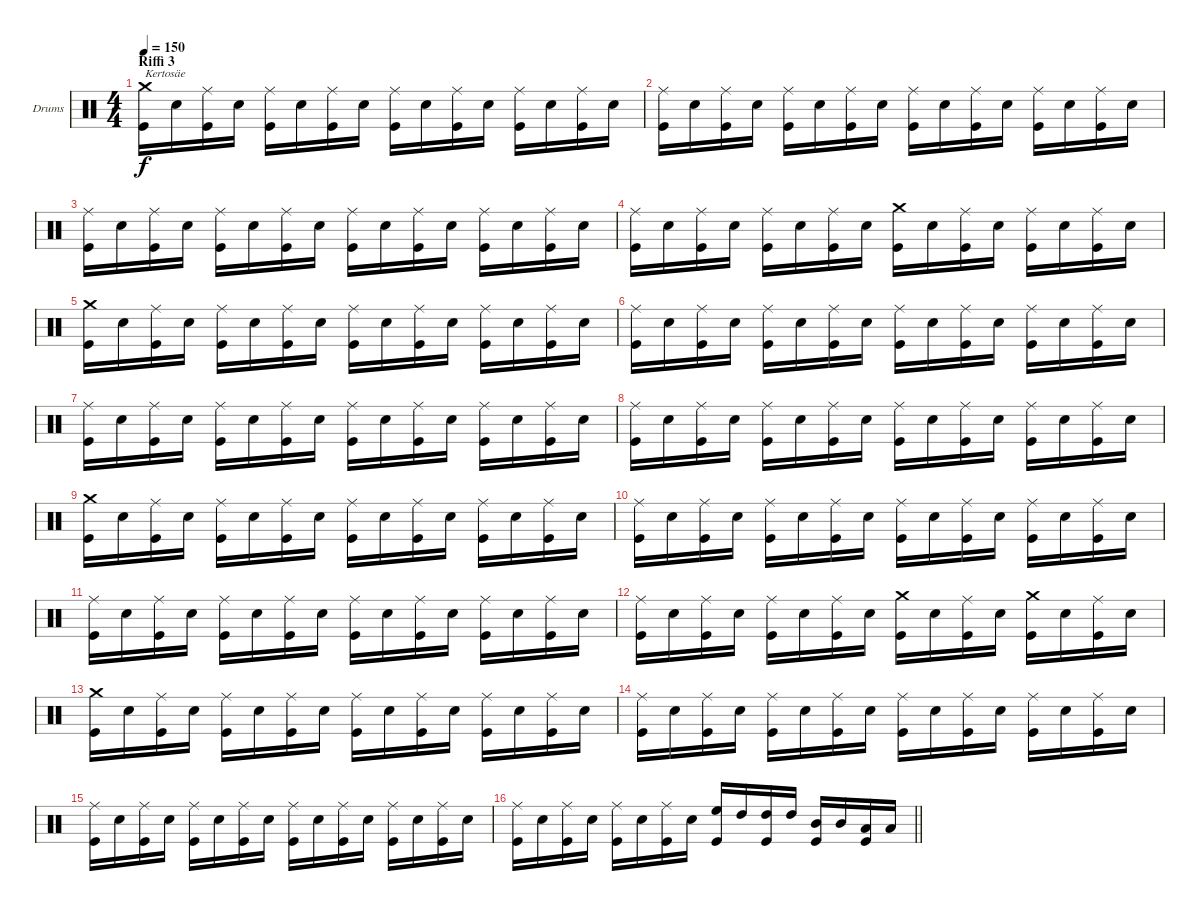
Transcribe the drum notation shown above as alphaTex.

\bracketExtendMode groupsimilarinstruments
\firstSystemTrackNameOrientation horizontal
\otherSystemsTrackNameOrientation horizontal
\track ("Drumkit" "Drums") {instrument percussion}
\staff {score}
\articulation defaults
\ts (4 4)
\section ("" "Riffi 3")
\tempo 150
\clef neutral
\ks c
("Crash medium (hit)" "Kick (hit)").16{txt "Kertosäe" dy f} "Snare (hit) 2".16 ("Ride (middle)" "Kick (hit)").16 "Snare (hit) 2".16 ("Ride (middle)" "Kick (hit)").16 "Snare (hit) 2".16 ("Ride (middle)" "Kick (hit)").16 "Snare (hit) 2".16 ("Ride (middle)" "Kick (hit)").16 "Snare (hit) 2".16 ("Ride (middle)" "Kick (hit)").16 "Snare (hit) 2".16 ("Ride (middle)" "Kick (hit)").16 "Snare (hit) 2".16 ("Ride (middle)" "Kick (hit)").16 "Snare (hit) 2".16 |
("Ride (middle)" "Kick (hit)").16 "Snare (hit) 2".16 ("Ride (middle)" "Kick (hit)").16 "Snare (hit) 2".16 ("Ride (middle)" "Kick (hit)").16 "Snare (hit) 2".16 ("Ride (middle)" "Kick (hit)").16 "Snare (hit) 2".16 ("Ride (middle)" "Kick (hit)").16 "Snare (hit) 2".16 ("Ride (middle)" "Kick (hit)").16 "Snare (hit) 2".16 ("Ride (middle)" "Kick (hit)").16 "Snare (hit) 2".16 ("Ride (middle)" "Kick (hit)").16 "Snare (hit) 2".16 |
("Ride (middle)" "Kick (hit)").16 "Snare (hit) 2".16 ("Ride (middle)" "Kick (hit)").16 "Snare (hit) 2".16 ("Ride (middle)" "Kick (hit)").16 "Snare (hit) 2".16 ("Ride (middle)" "Kick (hit)").16 "Snare (hit) 2".16 ("Ride (middle)" "Kick (hit)").16 "Snare (hit) 2".16 ("Ride (middle)" "Kick (hit)").16 "Snare (hit) 2".16 ("Ride (middle)" "Kick (hit)").16 "Snare (hit) 2".16 ("Ride (middle)" "Kick (hit)").16 "Snare (hit) 2".16 |
("Ride (middle)" "Kick (hit)").16 "Snare (hit) 2".16 ("Ride (middle)" "Kick (hit)").16 "Snare (hit) 2".16 ("Ride (middle)" "Kick (hit)").16 "Snare (hit) 2".16 ("Ride (middle)" "Kick (hit)").16 "Snare (hit) 2".16 ("Crash medium (hit)" "Kick (hit)").16 "Snare (hit) 2".16 ("Ride (middle)" "Kick (hit)").16 "Snare (hit) 2".16 ("Ride (middle)" "Kick (hit)").16 "Snare (hit) 2".16 ("Ride (middle)" "Kick (hit)").16 "Snare (hit) 2".16 |
("Crash medium (hit)" "Kick (hit)").16 "Snare (hit) 2".16 ("Ride (middle)" "Kick (hit)").16 "Snare (hit) 2".16 ("Ride (middle)" "Kick (hit)").16 "Snare (hit) 2".16 ("Ride (middle)" "Kick (hit)").16 "Snare (hit) 2".16 ("Ride (middle)" "Kick (hit)").16 "Snare (hit) 2".16 ("Ride (middle)" "Kick (hit)").16 "Snare (hit) 2".16 ("Ride (middle)" "Kick (hit)").16 "Snare (hit) 2".16 ("Ride (middle)" "Kick (hit)").16 "Snare (hit) 2".16 |
("Ride (middle)" "Kick (hit)").16 "Snare (hit) 2".16 ("Ride (middle)" "Kick (hit)").16 "Snare (hit) 2".16 ("Ride (middle)" "Kick (hit)").16 "Snare (hit) 2".16 ("Ride (middle)" "Kick (hit)").16 "Snare (hit) 2".16 ("Ride (middle)" "Kick (hit)").16 "Snare (hit) 2".16 ("Ride (middle)" "Kick (hit)").16 "Snare (hit) 2".16 ("Ride (middle)" "Kick (hit)").16 "Snare (hit) 2".16 ("Ride (middle)" "Kick (hit)").16 "Snare (hit) 2".16 |
("Ride (middle)" "Kick (hit)").16 "Snare (hit) 2".16 ("Ride (middle)" "Kick (hit)").16 "Snare (hit) 2".16 ("Ride (middle)" "Kick (hit)").16 "Snare (hit) 2".16 ("Ride (middle)" "Kick (hit)").16 "Snare (hit) 2".16 ("Ride (middle)" "Kick (hit)").16 "Snare (hit) 2".16 ("Ride (middle)" "Kick (hit)").16 "Snare (hit) 2".16 ("Ride (middle)" "Kick (hit)").16 "Snare (hit) 2".16 ("Ride (middle)" "Kick (hit)").16 "Snare (hit) 2".16 |
("Ride (middle)" "Kick (hit)").16 "Snare (hit) 2".16 ("Ride (middle)" "Kick (hit)").16 "Snare (hit) 2".16 ("Ride (middle)" "Kick (hit)").16 "Snare (hit) 2".16 ("Ride (middle)" "Kick (hit)").16 "Snare (hit) 2".16 ("Ride (middle)" "Kick (hit)").16 "Snare (hit) 2".16 ("Ride (middle)" "Kick (hit)").16 "Snare (hit) 2".16 ("Ride (middle)" "Kick (hit)").16 "Snare (hit) 2".16 ("Ride (middle)" "Kick (hit)").16 "Snare (hit) 2".16 |
("Crash medium (hit)" "Kick (hit)").16 "Snare (hit) 2".16 ("Ride (middle)" "Kick (hit)").16 "Snare (hit) 2".16 ("Ride (middle)" "Kick (hit)").16 "Snare (hit) 2".16 ("Ride (middle)" "Kick (hit)").16 "Snare (hit) 2".16 ("Ride (middle)" "Kick (hit)").16 "Snare (hit) 2".16 ("Ride (middle)" "Kick (hit)").16 "Snare (hit) 2".16 ("Ride (middle)" "Kick (hit)").16 "Snare (hit) 2".16 ("Ride (middle)" "Kick (hit)").16 "Snare (hit) 2".16 |
("Ride (middle)" "Kick (hit)").16 "Snare (hit) 2".16 ("Ride (middle)" "Kick (hit)").16 "Snare (hit) 2".16 ("Ride (middle)" "Kick (hit)").16 "Snare (hit) 2".16 ("Ride (middle)" "Kick (hit)").16 "Snare (hit) 2".16 ("Ride (middle)" "Kick (hit)").16 "Snare (hit) 2".16 ("Ride (middle)" "Kick (hit)").16 "Snare (hit) 2".16 ("Ride (middle)" "Kick (hit)").16 "Snare (hit) 2".16 ("Ride (middle)" "Kick (hit)").16 "Snare (hit) 2".16 |
("Ride (middle)" "Kick (hit)").16 "Snare (hit) 2".16 ("Ride (middle)" "Kick (hit)").16 "Snare (hit) 2".16 ("Ride (middle)" "Kick (hit)").16 "Snare (hit) 2".16 ("Ride (middle)" "Kick (hit)").16 "Snare (hit) 2".16 ("Ride (middle)" "Kick (hit)").16 "Snare (hit) 2".16 ("Ride (middle)" "Kick (hit)").16 "Snare (hit) 2".16 ("Ride (middle)" "Kick (hit)").16 "Snare (hit) 2".16 ("Ride (middle)" "Kick (hit)").16 "Snare (hit) 2".16 |
("Ride (middle)" "Kick (hit)").16 "Snare (hit) 2".16 ("Ride (middle)" "Kick (hit)").16 "Snare (hit) 2".16 ("Ride (middle)" "Kick (hit)").16 "Snare (hit) 2".16 ("Ride (middle)" "Kick (hit)").16 "Snare (hit) 2".16 ("Crash medium (hit)" "Kick (hit)").16 "Snare (hit) 2".16 ("Ride (middle)" "Kick (hit)").16 "Snare (hit) 2".16 ("Crash medium (hit)" "Kick (hit)").16 "Snare (hit) 2".16 ("Ride (middle)" "Kick (hit)").16 "Snare (hit) 2".16 |
("Crash medium (hit)" "Kick (hit)").16 "Snare (hit) 2".16 ("Ride (middle)" "Kick (hit)").16 "Snare (hit) 2".16 ("Ride (middle)" "Kick (hit)").16 "Snare (hit) 2".16 ("Ride (middle)" "Kick (hit)").16 "Snare (hit) 2".16 ("Ride (middle)" "Kick (hit)").16 "Snare (hit) 2".16 ("Ride (middle)" "Kick (hit)").16 "Snare (hit) 2".16 ("Ride (middle)" "Kick (hit)").16 "Snare (hit) 2".16 ("Ride (middle)" "Kick (hit)").16 "Snare (hit) 2".16 |
("Ride (middle)" "Kick (hit)").16 "Snare (hit) 2".16 ("Ride (middle)" "Kick (hit)").16 "Snare (hit) 2".16 ("Ride (middle)" "Kick (hit)").16 "Snare (hit) 2".16 ("Ride (middle)" "Kick (hit)").16 "Snare (hit) 2".16 ("Ride (middle)" "Kick (hit)").16 "Snare (hit) 2".16 ("Ride (middle)" "Kick (hit)").16 "Snare (hit) 2".16 ("Ride (middle)" "Kick (hit)").16 "Snare (hit) 2".16 ("Ride (middle)" "Kick (hit)").16 "Snare (hit) 2".16 |
("Ride (middle)" "Kick (hit)").16 "Snare (hit) 2".16 ("Ride (middle)" "Kick (hit)").16 "Snare (hit) 2".16 ("Ride (middle)" "Kick (hit)").16 "Snare (hit) 2".16 ("Ride (middle)" "Kick (hit)").16 "Snare (hit) 2".16 ("Ride (middle)" "Kick (hit)").16 "Snare (hit) 2".16 ("Ride (middle)" "Kick (hit)").16 "Snare (hit) 2".16 ("Ride (middle)" "Kick (hit)").16 "Snare (hit) 2".16 ("Ride (middle)" "Kick (hit)").16 "Snare (hit) 2".16 |
\barLineRight lightlight
("Ride (middle)" "Kick (hit)").16 "Snare (hit) 2".16 ("Ride (middle)" "Kick (hit)").16 "Snare (hit) 2".16 ("Ride (middle)" "Kick (hit)").16 "Snare (hit) 2".16 ("Ride (middle)" "Kick (hit)").16 "Snare (hit) 2".16 ("High Floor Tom (hit)" "Kick (hit)").16 "High Tom (hit)".16 ("High Tom (hit)" "Kick (hit)").16 "High Tom (hit)".16 ("Mid Tom (hit)" "Kick (hit)").16 "Mid Tom (hit)".16 ("Low Tom (hit)" "Kick (hit)").16 "Low Tom (hit)".16
